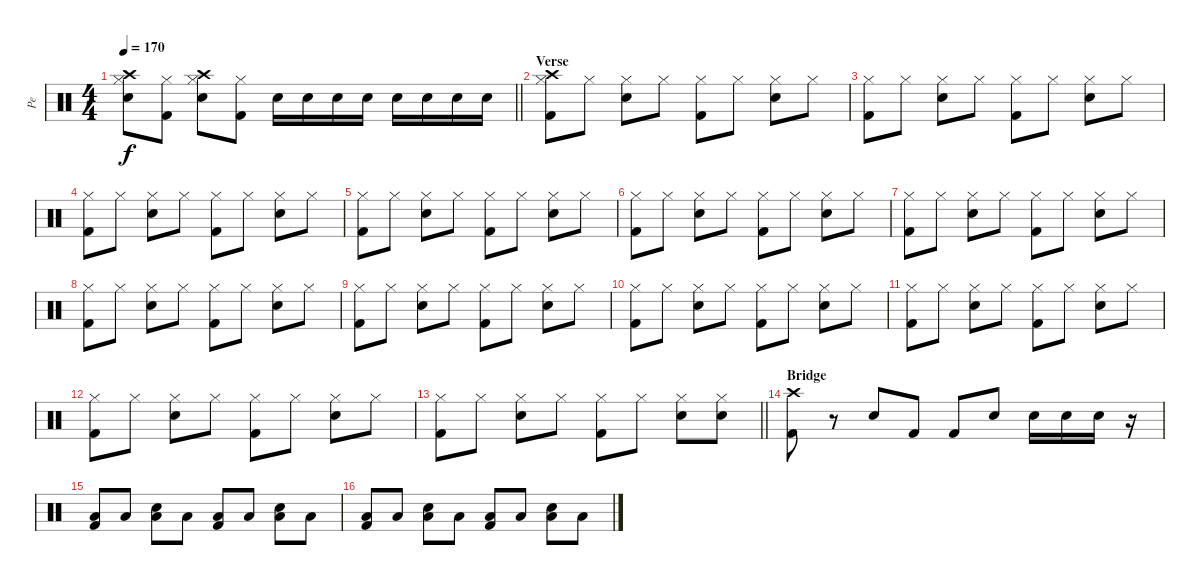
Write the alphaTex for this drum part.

\track ("Pe" "Pe") {instrument percussion}
\staff {score}
\articulation defaults
\ts (4 4)
\tempo 170
\clef neutral
\barLineRight lightlight
\ks c
("Crash high (hit)" "Hi-Hat (closed)" "Snare (hit) 2").8{dy f} ("Hi-Hat (closed)" "Kick (hit) 2").8 ("Crash high (hit)" "Hi-Hat (closed)" "Snare (hit) 2").8 ("Hi-Hat (closed)" "Kick (hit) 2").8 "Snare (hit) 2".16 "Snare (hit) 2".16 "Snare (hit) 2".16 "Snare (hit) 2".16 "Snare (hit) 2".16 "Snare (hit) 2".16 "Snare (hit) 2".16 "Snare (hit) 2".16 |
\section ("" "Verse")
("Crash high (hit)" "Hi-Hat (closed)" "Kick (hit) 2").8 "Hi-Hat (closed)".8 ("Hi-Hat (closed)" "Snare (hit) 2").8 "Hi-Hat (closed)".8 ("Hi-Hat (closed)" "Kick (hit) 2").8 "Hi-Hat (closed)".8 ("Hi-Hat (closed)" "Snare (hit) 2").8 "Hi-Hat (closed)".8 |
("Hi-Hat (closed)" "Kick (hit) 2").8 "Hi-Hat (closed)".8 ("Hi-Hat (closed)" "Snare (hit) 2").8 "Hi-Hat (closed)".8 ("Hi-Hat (closed)" "Kick (hit) 2").8 "Hi-Hat (closed)".8 ("Hi-Hat (closed)" "Snare (hit) 2").8 "Hi-Hat (closed)".8 |
("Hi-Hat (closed)" "Kick (hit) 2").8 "Hi-Hat (closed)".8 ("Hi-Hat (closed)" "Snare (hit) 2").8 "Hi-Hat (closed)".8 ("Hi-Hat (closed)" "Kick (hit) 2").8 "Hi-Hat (closed)".8 ("Hi-Hat (closed)" "Snare (hit) 2").8 "Hi-Hat (closed)".8 |
("Hi-Hat (closed)" "Kick (hit) 2").8 "Hi-Hat (closed)".8 ("Hi-Hat (closed)" "Snare (hit) 2").8 "Hi-Hat (closed)".8 ("Hi-Hat (closed)" "Kick (hit) 2").8 "Hi-Hat (closed)".8 ("Hi-Hat (closed)" "Snare (hit) 2").8 "Hi-Hat (closed)".8 |
("Hi-Hat (closed)" "Kick (hit) 2").8 "Hi-Hat (closed)".8 ("Hi-Hat (closed)" "Snare (hit) 2").8 "Hi-Hat (closed)".8 ("Hi-Hat (closed)" "Kick (hit) 2").8 "Hi-Hat (closed)".8 ("Hi-Hat (closed)" "Snare (hit) 2").8 "Hi-Hat (closed)".8 |
("Hi-Hat (closed)" "Kick (hit) 2").8 "Hi-Hat (closed)".8 ("Hi-Hat (closed)" "Snare (hit) 2").8 "Hi-Hat (closed)".8 ("Hi-Hat (closed)" "Kick (hit) 2").8 "Hi-Hat (closed)".8 ("Hi-Hat (closed)" "Snare (hit) 2").8 "Hi-Hat (closed)".8 |
("Hi-Hat (closed)" "Kick (hit) 2").8 "Hi-Hat (closed)".8 ("Hi-Hat (closed)" "Snare (hit) 2").8 "Hi-Hat (closed)".8 ("Hi-Hat (closed)" "Kick (hit) 2").8 "Hi-Hat (closed)".8 ("Hi-Hat (closed)" "Snare (hit) 2").8 "Hi-Hat (closed)".8 |
("Hi-Hat (closed)" "Kick (hit) 2").8 "Hi-Hat (closed)".8 ("Hi-Hat (closed)" "Snare (hit) 2").8 "Hi-Hat (closed)".8 ("Hi-Hat (closed)" "Kick (hit) 2").8 "Hi-Hat (closed)".8 ("Hi-Hat (closed)" "Snare (hit) 2").8 "Hi-Hat (closed)".8 |
("Hi-Hat (closed)" "Kick (hit) 2").8 "Hi-Hat (closed)".8 ("Hi-Hat (closed)" "Snare (hit) 2").8 "Hi-Hat (closed)".8 ("Hi-Hat (closed)" "Kick (hit) 2").8 "Hi-Hat (closed)".8 ("Hi-Hat (closed)" "Snare (hit) 2").8 "Hi-Hat (closed)".8 |
("Hi-Hat (closed)" "Kick (hit) 2").8 "Hi-Hat (closed)".8 ("Hi-Hat (closed)" "Snare (hit) 2").8 "Hi-Hat (closed)".8 ("Hi-Hat (closed)" "Kick (hit) 2").8 "Hi-Hat (closed)".8 ("Hi-Hat (closed)" "Snare (hit) 2").8 "Hi-Hat (closed)".8 |
("Hi-Hat (closed)" "Kick (hit) 2").8 "Hi-Hat (closed)".8 ("Hi-Hat (closed)" "Snare (hit) 2").8 "Hi-Hat (closed)".8 ("Hi-Hat (closed)" "Kick (hit) 2").8 "Hi-Hat (closed)".8 ("Hi-Hat (closed)" "Snare (hit) 2").8 "Hi-Hat (closed)".8 |
\barLineRight lightlight
("Hi-Hat (closed)" "Kick (hit) 2").8 "Hi-Hat (closed)".8 ("Hi-Hat (closed)" "Snare (hit) 2").8 "Hi-Hat (closed)".8 ("Hi-Hat (closed)" "Kick (hit) 2").8 "Hi-Hat (closed)".8 ("Hi-Hat (closed)" "Snare (hit) 2").8 ("Hi-Hat (closed)" "Snare (hit) 2").8 |
\section ("" "Bridge")
("Crash high (hit)" "Kick (hit) 2").8 r.8 "Snare (hit) 2".8 "Kick (hit) 2".8 "Kick (hit) 2".8 "Snare (hit) 2".8 "Snare (hit) 2".16 "Snare (hit) 2".16 "Snare (hit) 2".16 r.16 |
("Low Floor Tom (hit)" "Kick (hit) 2").8 "Low Floor Tom (hit)".8 ("Snare (hit) 2" "Low Floor Tom (hit)").8 "Low Floor Tom (hit)".8 ("Low Floor Tom (hit)" "Kick (hit) 2").8 "Low Floor Tom (hit)".8 ("Snare (hit) 2" "Low Floor Tom (hit)").8 "Low Floor Tom (hit)".8 |
("Low Floor Tom (hit)" "Kick (hit) 2").8 "Low Floor Tom (hit)".8 ("Snare (hit) 2" "Low Floor Tom (hit)").8 "Low Floor Tom (hit)".8 ("Low Floor Tom (hit)" "Kick (hit) 2").8 "Low Floor Tom (hit)".8 ("Snare (hit) 2" "Low Floor Tom (hit)").8 "Low Floor Tom (hit)".8
